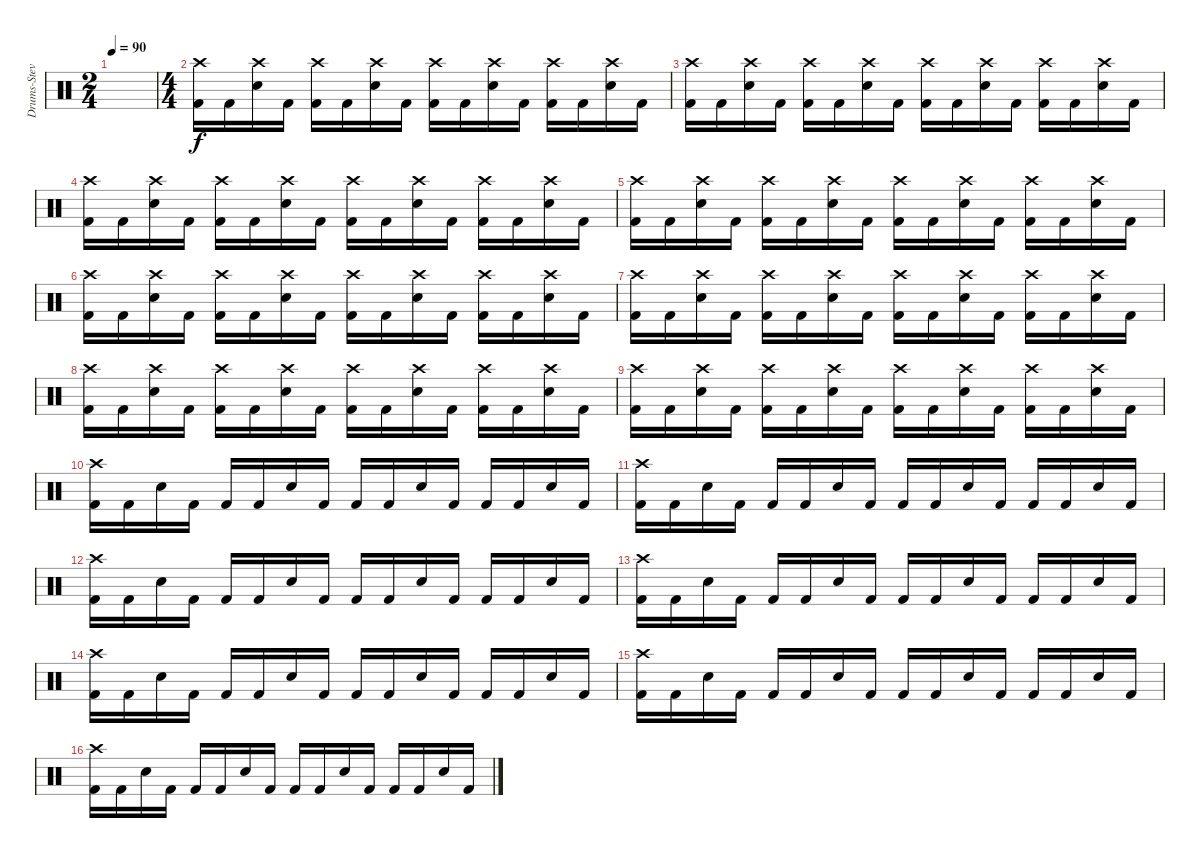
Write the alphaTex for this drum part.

\track ("Drums-Steve" "Drums-Stev") {instrument percussion}
\staff {score}
\articulation defaults
\ts (2 4)
\tempo 90
\clef neutral
\ks c
|
\ts (4 4)
("Crash high (hit)" "Kick (hit) 2").16 "Kick (hit) 2".16 ("Crash high (hit)" "Electric Snare (hit)").16 "Kick (hit) 2".16 ("Crash high (hit)" "Kick (hit) 2").16 "Kick (hit) 2".16 ("Crash high (hit)" "Electric Snare (hit)").16 "Kick (hit) 2".16 ("Crash high (hit)" "Kick (hit) 2").16 "Kick (hit) 2".16 ("Crash high (hit)" "Electric Snare (hit)").16 "Kick (hit) 2".16 ("Crash high (hit)" "Kick (hit) 2").16 "Kick (hit) 2".16 ("Crash high (hit)" "Electric Snare (hit)").16 "Kick (hit) 2".16 |
("Crash high (hit)" "Kick (hit) 2").16 "Kick (hit) 2".16 ("Crash high (hit)" "Electric Snare (hit)").16 "Kick (hit) 2".16 ("Crash high (hit)" "Kick (hit) 2").16 "Kick (hit) 2".16 ("Crash high (hit)" "Electric Snare (hit)").16 "Kick (hit) 2".16 ("Crash high (hit)" "Kick (hit) 2").16 "Kick (hit) 2".16 ("Crash high (hit)" "Electric Snare (hit)").16 "Kick (hit) 2".16 ("Crash high (hit)" "Kick (hit) 2").16 "Kick (hit) 2".16 ("Crash high (hit)" "Electric Snare (hit)").16 "Kick (hit) 2".16 |
("Crash high (hit)" "Kick (hit) 2").16 "Kick (hit) 2".16 ("Crash high (hit)" "Electric Snare (hit)").16 "Kick (hit) 2".16 ("Crash high (hit)" "Kick (hit) 2").16 "Kick (hit) 2".16 ("Crash high (hit)" "Electric Snare (hit)").16 "Kick (hit) 2".16 ("Crash high (hit)" "Kick (hit) 2").16 "Kick (hit) 2".16 ("Crash high (hit)" "Electric Snare (hit)").16 "Kick (hit) 2".16 ("Crash high (hit)" "Kick (hit) 2").16 "Kick (hit) 2".16 ("Crash high (hit)" "Electric Snare (hit)").16 "Kick (hit) 2".16 |
("Crash high (hit)" "Kick (hit) 2").16 "Kick (hit) 2".16 ("Crash high (hit)" "Electric Snare (hit)").16 "Kick (hit) 2".16 ("Crash high (hit)" "Kick (hit) 2").16 "Kick (hit) 2".16 ("Crash high (hit)" "Electric Snare (hit)").16 "Kick (hit) 2".16 ("Crash high (hit)" "Kick (hit) 2").16 "Kick (hit) 2".16 ("Crash high (hit)" "Electric Snare (hit)").16 "Kick (hit) 2".16 ("Crash high (hit)" "Kick (hit) 2").16 "Kick (hit) 2".16 ("Crash high (hit)" "Electric Snare (hit)").16 "Kick (hit) 2".16 |
("Crash high (hit)" "Kick (hit) 2").16 "Kick (hit) 2".16 ("Crash high (hit)" "Electric Snare (hit)").16 "Kick (hit) 2".16 ("Crash high (hit)" "Kick (hit) 2").16 "Kick (hit) 2".16 ("Crash high (hit)" "Electric Snare (hit)").16 "Kick (hit) 2".16 ("Crash high (hit)" "Kick (hit) 2").16 "Kick (hit) 2".16 ("Crash high (hit)" "Electric Snare (hit)").16 "Kick (hit) 2".16 ("Crash high (hit)" "Kick (hit) 2").16 "Kick (hit) 2".16 ("Crash high (hit)" "Electric Snare (hit)").16 "Kick (hit) 2".16 |
("Crash high (hit)" "Kick (hit) 2").16 "Kick (hit) 2".16 ("Crash high (hit)" "Electric Snare (hit)").16 "Kick (hit) 2".16 ("Crash high (hit)" "Kick (hit) 2").16 "Kick (hit) 2".16 ("Crash high (hit)" "Electric Snare (hit)").16 "Kick (hit) 2".16 ("Crash high (hit)" "Kick (hit) 2").16 "Kick (hit) 2".16 ("Crash high (hit)" "Electric Snare (hit)").16 "Kick (hit) 2".16 ("Crash high (hit)" "Kick (hit) 2").16 "Kick (hit) 2".16 ("Crash high (hit)" "Electric Snare (hit)").16 "Kick (hit) 2".16 |
("Crash high (hit)" "Kick (hit) 2").16 "Kick (hit) 2".16 ("Crash high (hit)" "Electric Snare (hit)").16 "Kick (hit) 2".16 ("Crash high (hit)" "Kick (hit) 2").16 "Kick (hit) 2".16 ("Crash high (hit)" "Electric Snare (hit)").16 "Kick (hit) 2".16 ("Crash high (hit)" "Kick (hit) 2").16 "Kick (hit) 2".16 ("Crash high (hit)" "Electric Snare (hit)").16 "Kick (hit) 2".16 ("Crash high (hit)" "Kick (hit) 2").16 "Kick (hit) 2".16 ("Crash high (hit)" "Electric Snare (hit)").16 "Kick (hit) 2".16 |
("Crash high (hit)" "Kick (hit) 2").16 "Kick (hit) 2".16 ("Crash high (hit)" "Electric Snare (hit)").16 "Kick (hit) 2".16 ("Crash high (hit)" "Kick (hit) 2").16 "Kick (hit) 2".16 ("Crash high (hit)" "Electric Snare (hit)").16 "Kick (hit) 2".16 ("Crash high (hit)" "Kick (hit) 2").16 "Kick (hit) 2".16 ("Crash high (hit)" "Electric Snare (hit)").16 "Kick (hit) 2".16 ("Crash high (hit)" "Kick (hit) 2").16 "Kick (hit) 2".16 ("Crash high (hit)" "Electric Snare (hit)").16 "Kick (hit) 2".16 |
("Crash high (hit)" "Kick (hit) 2").16 "Kick (hit) 2".16 "Electric Snare (hit)".16 "Kick (hit) 2".16 "Kick (hit) 2".16 "Kick (hit) 2".16 "Electric Snare (hit)".16 "Kick (hit) 2".16 "Kick (hit) 2".16 "Kick (hit) 2".16 "Electric Snare (hit)".16 "Kick (hit) 2".16 "Kick (hit) 2".16 "Kick (hit) 2".16 "Electric Snare (hit)".16 "Kick (hit) 2".16 |
("Crash high (hit)" "Kick (hit) 2").16 "Kick (hit) 2".16 "Electric Snare (hit)".16 "Kick (hit) 2".16 "Kick (hit) 2".16 "Kick (hit) 2".16 "Electric Snare (hit)".16 "Kick (hit) 2".16 "Kick (hit) 2".16 "Kick (hit) 2".16 "Electric Snare (hit)".16 "Kick (hit) 2".16 "Kick (hit) 2".16 "Kick (hit) 2".16 "Electric Snare (hit)".16 "Kick (hit) 2".16 |
("Crash high (hit)" "Kick (hit) 2").16 "Kick (hit) 2".16 "Electric Snare (hit)".16 "Kick (hit) 2".16 "Kick (hit) 2".16 "Kick (hit) 2".16 "Electric Snare (hit)".16 "Kick (hit) 2".16 "Kick (hit) 2".16 "Kick (hit) 2".16 "Electric Snare (hit)".16 "Kick (hit) 2".16 "Kick (hit) 2".16 "Kick (hit) 2".16 "Electric Snare (hit)".16 "Kick (hit) 2".16 |
("Crash high (hit)" "Kick (hit) 2").16 "Kick (hit) 2".16 "Electric Snare (hit)".16 "Kick (hit) 2".16 "Kick (hit) 2".16 "Kick (hit) 2".16 "Electric Snare (hit)".16 "Kick (hit) 2".16 "Kick (hit) 2".16 "Kick (hit) 2".16 "Electric Snare (hit)".16 "Kick (hit) 2".16 "Kick (hit) 2".16 "Kick (hit) 2".16 "Electric Snare (hit)".16 "Kick (hit) 2".16 |
("Crash high (hit)" "Kick (hit) 2").16 "Kick (hit) 2".16 "Electric Snare (hit)".16 "Kick (hit) 2".16 "Kick (hit) 2".16 "Kick (hit) 2".16 "Electric Snare (hit)".16 "Kick (hit) 2".16 "Kick (hit) 2".16 "Kick (hit) 2".16 "Electric Snare (hit)".16 "Kick (hit) 2".16 "Kick (hit) 2".16 "Kick (hit) 2".16 "Electric Snare (hit)".16 "Kick (hit) 2".16 |
("Crash high (hit)" "Kick (hit) 2").16 "Kick (hit) 2".16 "Electric Snare (hit)".16 "Kick (hit) 2".16 "Kick (hit) 2".16 "Kick (hit) 2".16 "Electric Snare (hit)".16 "Kick (hit) 2".16 "Kick (hit) 2".16 "Kick (hit) 2".16 "Electric Snare (hit)".16 "Kick (hit) 2".16 "Kick (hit) 2".16 "Kick (hit) 2".16 "Electric Snare (hit)".16 "Kick (hit) 2".16 |
("Crash high (hit)" "Kick (hit) 2").16 "Kick (hit) 2".16 "Electric Snare (hit)".16 "Kick (hit) 2".16 "Kick (hit) 2".16 "Kick (hit) 2".16 "Electric Snare (hit)".16 "Kick (hit) 2".16 "Kick (hit) 2".16 "Kick (hit) 2".16 "Electric Snare (hit)".16 "Kick (hit) 2".16 "Kick (hit) 2".16 "Kick (hit) 2".16 "Electric Snare (hit)".16 "Kick (hit) 2".16
